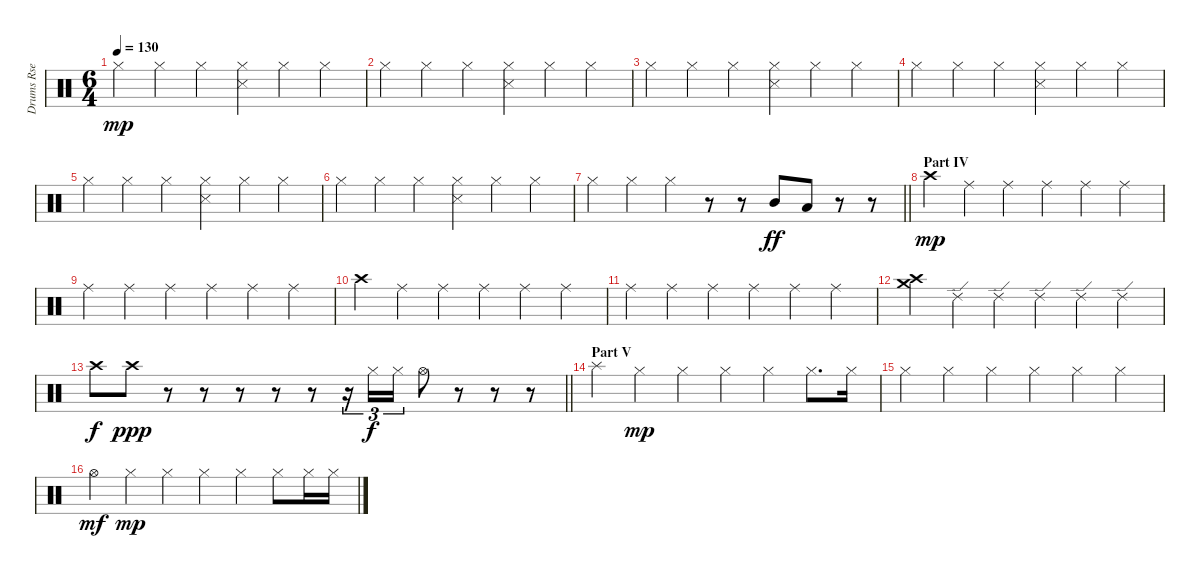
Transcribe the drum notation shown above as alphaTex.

\track ("Drums Rse" "Drums Rse") {instrument percussion}
\staff {score}
\articulation defaults
\ts (6 4)
\tempo 130
\clef neutral
\ks c "Hi-Hat (closed)".4{dy mp} "Hi-Hat (closed)".4 "Hi-Hat (closed)".4
("Hi-Hat (closed)" "Metronome (hit)").4 "Hi-Hat (closed)".4 "Hi-Hat (closed)".4 |
"Hi-Hat (closed)".4 "Hi-Hat (closed)".4 "Hi-Hat (closed)".4 ("Hi-Hat (closed)" "Metronome (hit)").4 "Hi-Hat (closed)".4 "Hi-Hat (closed)".4 |
"Hi-Hat (closed)".4 "Hi-Hat (closed)".4 "Hi-Hat (closed)".4 ("Hi-Hat (closed)" "Metronome (hit)").4 "Hi-Hat (closed)".4 "Hi-Hat (closed)".4 |
"Hi-Hat (closed)".4 "Hi-Hat (closed)".4 "Hi-Hat (closed)".4 ("Hi-Hat (closed)" "Metronome (hit)").4 "Hi-Hat (closed)".4 "Hi-Hat (closed)".4 |
"Hi-Hat (closed)".4 "Hi-Hat (closed)".4 "Hi-Hat (closed)".4 ("Hi-Hat (closed)" "Metronome (hit)").4 "Hi-Hat (closed)".4 "Hi-Hat (closed)".4 |
"Hi-Hat (closed)".4 "Hi-Hat (closed)".4 "Hi-Hat (closed)".4 ("Hi-Hat (closed)" "Metronome (hit)").4 "Hi-Hat (closed)".4 "Hi-Hat (closed)".4 |
\barLineRight lightlight "Hi-Hat (closed)".4 "Hi-Hat (closed)".4 "Hi-Hat (closed)".4
r.8 r.8 "Mid Tom (hit)".8{dy ff} "Low Tom (hit)".8 r.8 r.8 |
\section ("" "Part IV")
"Crash high (hit)".4{dy mp} "Ride (middle)".4 "Ride (middle)".4 "Ride (middle)".4 "Ride (middle)".4 "Ride (middle)".4 |
"Ride (middle)".4 "Ride (middle)".4 "Ride (middle)".4 "Ride (middle)".4 "Ride (middle)".4 "Ride (middle)".4 |
"Crash high (hit)".4 "Ride (middle)".4 "Ride (middle)".4 "Ride (middle)".4 "Ride (middle)".4 "Ride (middle)".4 |
"Ride (middle)".4 "Ride (middle)".4 "Ride (middle)".4 "Ride (middle)".4 "Ride (middle)".4 "Ride (middle)".4 |
("Crash medium (hit)" "Crash high (hit)").4 "Ride (edge) 2".4 "Ride (edge) 2".4 "Ride (edge) 2".4 "Ride (edge) 2".4 "Ride (edge) 2".4 |
\barLineRight lightlight "Crash high (hit)".8{dy f} "Crash high (hit)".8{dy ppp}
r.8 r.8 r.8 r.8 r.8 r.16{tu (3 2)} "Hi-Hat (closed)".16{tu (3 2) dy f} "Hi-Hat (closed)".16{tu (3 2)} "Hi-Hat (open)".8 r.8 r.8 r.8 |
\section ("" "Part V")
"Splash (hit)".4 "Hi-Hat (closed)".4{dy mp} "Hi-Hat (closed)".4 "Hi-Hat (closed)".4 "Hi-Hat (closed)".4 "Hi-Hat (closed)".8{d} "Hi-Hat (closed)".16 |
"Hi-Hat (closed)".4 "Hi-Hat (closed)".4 "Hi-Hat (closed)".4 "Hi-Hat (closed)".4 "Hi-Hat (closed)".4 "Hi-Hat (closed)".4 |
"Hi-Hat (open)".4{dy mf} "Hi-Hat (closed)".4{dy mp} "Hi-Hat (closed)".4 "Hi-Hat (closed)".4 "Hi-Hat (closed)".4 "Hi-Hat (closed)".8 "Hi-Hat (closed)".16 "Hi-Hat (closed)".16
